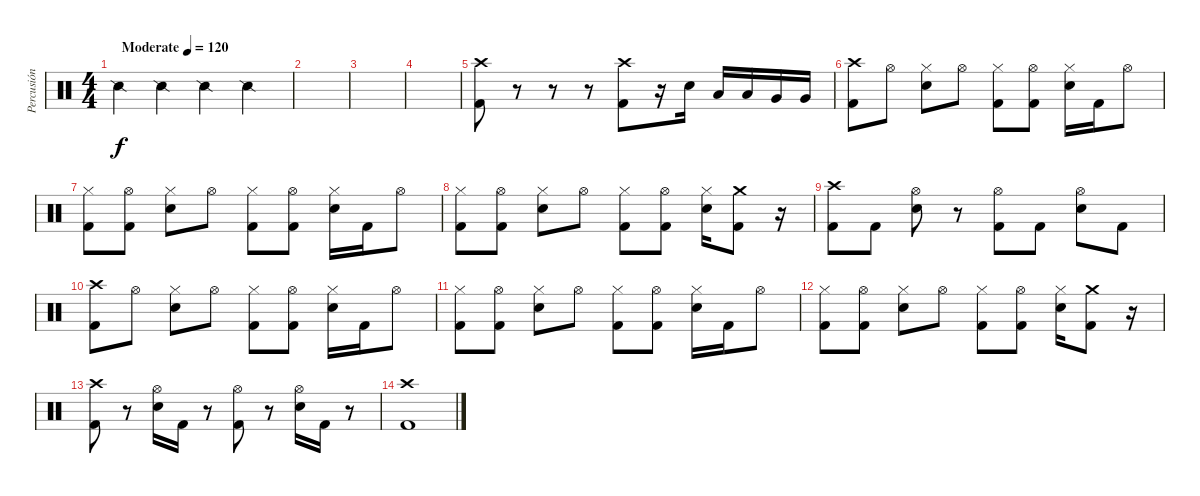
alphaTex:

\track ("Percusión" "Percusión") {instrument percussion}
\staff {score}
\articulation defaults
\ts (4 4)
\tempo (120 "Moderate")
\clef neutral
\ks c "Snare (side stick) 2".4{dy f} "Snare (side stick) 2".4 "Snare (side stick) 2".4 "Snare (side stick) 2".4
|
|
|
|
("Crash high (hit)" "Kick (hit) 2").8 r.8 r.8 r.8 ("Crash high (hit)" "Kick (hit) 2").8 r.16 "Electric Snare (hit)".16 "Low Tom (hit)".16 "Low Tom (hit)".16 "Very Low Tom (hit)".16 "Very Low Tom (hit)".16 |
("Crash high (hit)" "Kick (hit) 2").8 "Hi-Hat (open)".8 ("Hi-Hat (closed)" "Electric Snare (hit)").8 "Hi-Hat (open)".8 ("Hi-Hat (closed)" "Kick (hit) 2").8 ("Hi-Hat (open)" "Kick (hit) 2").8 ("Hi-Hat (closed)" "Electric Snare (hit)").16 "Kick (hit) 2".16 "Hi-Hat (open)".8 |
("Hi-Hat (closed)" "Kick (hit) 2").8 ("Hi-Hat (open)" "Kick (hit) 2").8 ("Hi-Hat (closed)" "Electric Snare (hit)").8 "Hi-Hat (open)".8 ("Hi-Hat (closed)" "Kick (hit) 2").8 ("Hi-Hat (open)" "Kick (hit) 2").8 ("Hi-Hat (closed)" "Electric Snare (hit)").16 "Kick (hit) 2".16 "Hi-Hat (open)".8 |
("Hi-Hat (closed)" "Kick (hit) 2").8 ("Hi-Hat (open)" "Kick (hit) 2").8 ("Hi-Hat (closed)" "Electric Snare (hit)").8 "Hi-Hat (open)".8 ("Hi-Hat (closed)" "Kick (hit) 2").8 ("Hi-Hat (open)" "Kick (hit) 2").8 ("Hi-Hat (closed)" "Electric Snare (hit)").16 ("Crash medium (hit)" "Kick (hit) 2").8 r.16 |
("Crash high (hit)" "Kick (hit) 2").8 "Kick (hit) 2".8 ("Hi-Hat (open)" "Electric Snare (hit)").8 r.8 ("Hi-Hat (open)" "Kick (hit) 2").8 "Kick (hit) 2".8 ("Hi-Hat (open)" "Electric Snare (hit)").8 "Kick (hit) 2".8 |
("Crash high (hit)" "Kick (hit) 2").8 "Hi-Hat (open)".8 ("Hi-Hat (closed)" "Electric Snare (hit)").8 "Hi-Hat (open)".8 ("Hi-Hat (closed)" "Kick (hit) 2").8 ("Hi-Hat (open)" "Kick (hit) 2").8 ("Hi-Hat (closed)" "Electric Snare (hit)").16 "Kick (hit) 2".16 "Hi-Hat (open)".8 |
("Hi-Hat (closed)" "Kick (hit) 2").8 ("Hi-Hat (open)" "Kick (hit) 2").8 ("Hi-Hat (closed)" "Electric Snare (hit)").8 "Hi-Hat (open)".8 ("Hi-Hat (closed)" "Kick (hit) 2").8 ("Hi-Hat (open)" "Kick (hit) 2").8 ("Hi-Hat (closed)" "Electric Snare (hit)").16 "Kick (hit) 2".16 "Hi-Hat (open)".8 |
("Hi-Hat (closed)" "Kick (hit) 2").8 ("Hi-Hat (open)" "Kick (hit) 2").8 ("Hi-Hat (closed)" "Electric Snare (hit)").8 "Hi-Hat (open)".8 ("Hi-Hat (closed)" "Kick (hit) 2").8 ("Hi-Hat (open)" "Kick (hit) 2").8 ("Hi-Hat (closed)" "Electric Snare (hit)").16 ("Crash medium (hit)" "Kick (hit) 2").8 r.16 |
("Crash high (hit)" "Kick (hit) 2").8 r.8 ("Hi-Hat (open)" "Electric Snare (hit)").16 "Kick (hit) 2".16 r.8 ("Hi-Hat (open)" "Kick (hit) 2").8 r.8 ("Hi-Hat (open)" "Electric Snare (hit)").16 "Kick (hit) 2".16 r.8 |
("Crash high (hit)" "Kick (hit) 2").1
